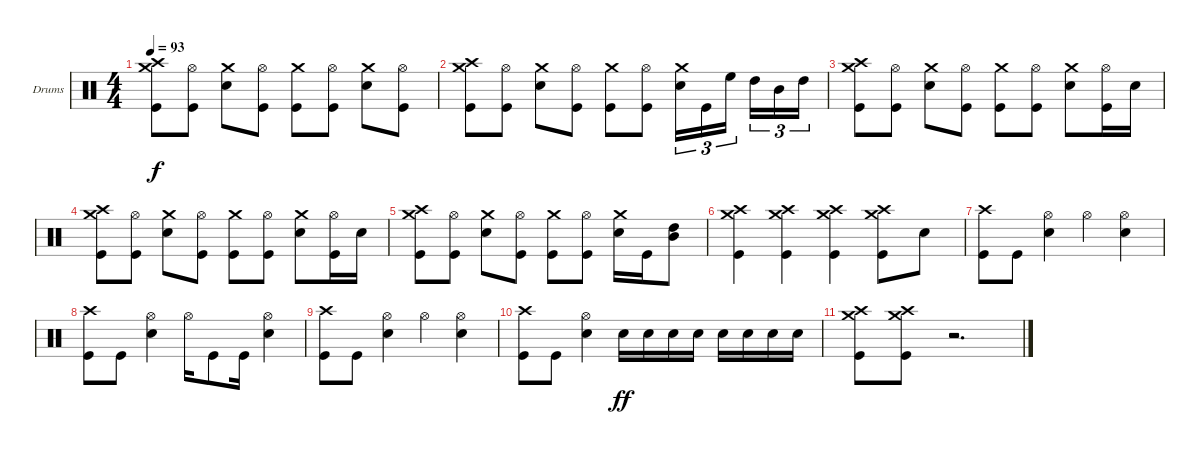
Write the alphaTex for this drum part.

\bracketExtendMode groupsimilarinstruments
\firstSystemTrackNameOrientation horizontal
\otherSystemsTrackNameOrientation horizontal
\track ("Drums (Tony Palermo)" "Drums") {instrument percussion}
\staff {score}
\articulation defaults
\ts (4 4)
\tempo 93
\clef neutral
\ks c
("Crash medium (hit)" "Crash high (hit)" "Kick (hit)").8{dy f} ("Hi-Hat (open)" "Kick (hit)").8 ("Crash medium (hit)" "Snare (hit) 2").8 ("Hi-Hat (open)" "Kick (hit)").8 ("Crash medium (hit)" "Kick (hit)").8 ("Hi-Hat (open)" "Kick (hit)").8 ("Crash medium (hit)" "Snare (hit) 2").8 ("Hi-Hat (open)" "Kick (hit)").8 |
("Crash medium (hit)" "Crash high (hit)" "Kick (hit)").8 ("Hi-Hat (open)" "Kick (hit)").8 ("Crash medium (hit)" "Snare (hit) 2").8 ("Hi-Hat (open)" "Kick (hit)").8 ("Crash medium (hit)" "Kick (hit)").8 ("Hi-Hat (open)" "Kick (hit)").8 ("Crash medium (hit)" "Snare (hit) 2").16{tu (3 2)} "Kick (hit)".16{tu (3 2)} "High Floor Tom (hit)".16{tu (3 2)} "High Tom (hit)".16{tu (3 2)} "Mid Tom (hit)".16{tu (3 2)} "High Tom (hit)".16{tu (3 2)} |
("Crash medium (hit)" "Crash high (hit)" "Kick (hit)").8 ("Hi-Hat (open)" "Kick (hit)").8 ("Crash medium (hit)" "Snare (hit) 2").8 ("Hi-Hat (open)" "Kick (hit)").8 ("Crash medium (hit)" "Kick (hit)").8 ("Hi-Hat (open)" "Kick (hit)").8 ("Crash medium (hit)" "Snare (hit) 2").8 ("Hi-Hat (open)" "Kick (hit)").16 "Snare (hit) 2".16 |
("Crash medium (hit)" "Crash high (hit)" "Kick (hit)").8 ("Hi-Hat (open)" "Kick (hit)").8 ("Crash medium (hit)" "Snare (hit) 2").8 ("Hi-Hat (open)" "Kick (hit)").8 ("Crash medium (hit)" "Kick (hit)").8 ("Hi-Hat (open)" "Kick (hit)").8 ("Crash medium (hit)" "Snare (hit) 2").8 ("Hi-Hat (open)" "Kick (hit)").16 "Snare (hit) 2".16 |
("Crash medium (hit)" "Crash high (hit)" "Kick (hit)").8 ("Hi-Hat (open)" "Kick (hit)").8 ("Crash medium (hit)" "Snare (hit) 2").8 ("Hi-Hat (open)" "Kick (hit)").8 ("Crash medium (hit)" "Kick (hit)").8 ("Hi-Hat (open)" "Kick (hit)").8 ("Crash medium (hit)" "Snare (hit) 2").16 "Kick (hit)".16 ("High Tom (hit)" "Mid Tom (hit)").8 |
("Crash medium (hit)" "Crash high (hit)" "Kick (hit)").4 ("Crash medium (hit)" "Crash high (hit)" "Kick (hit)").4 ("Crash medium (hit)" "Crash high (hit)" "Kick (hit)").4 ("Crash medium (hit)" "Crash high (hit)" "Kick (hit)").8 "Snare (hit) 2".8 |
("Crash high (hit)" "Kick (hit)").8 "Kick (hit)".8 ("Hi-Hat (open)" "Snare (hit) 2").4 "Hi-Hat (open)".4 ("Hi-Hat (open)" "Snare (hit) 2").4 |
("Crash high (hit)" "Kick (hit)").8 "Kick (hit)".8 ("Hi-Hat (open)" "Snare (hit) 2").4 "Hi-Hat (open)".16 "Kick (hit)".8 "Kick (hit)".16 ("Hi-Hat (open)" "Snare (hit) 2").4 |
("Crash high (hit)" "Kick (hit)").8 "Kick (hit)".8 ("Hi-Hat (open)" "Snare (hit) 2").4 "Hi-Hat (open)".4 ("Hi-Hat (open)" "Snare (hit) 2").4 |
("Crash high (hit)" "Kick (hit)").8 "Kick (hit)".8 ("Hi-Hat (open)" "Snare (hit) 2").4 "Snare (hit) 2".16{dy ff} "Snare (hit) 2".16 "Snare (hit) 2".16 "Snare (hit) 2".16 "Snare (hit) 2".16 "Snare (hit) 2".16 "Snare (hit) 2".16 "Snare (hit) 2".16 |
("Crash medium (hit)" "Crash high (hit)" "Kick (hit)").8 ("Crash medium (hit)" "Crash high (hit)" "Kick (hit)").8 r.2{d}
